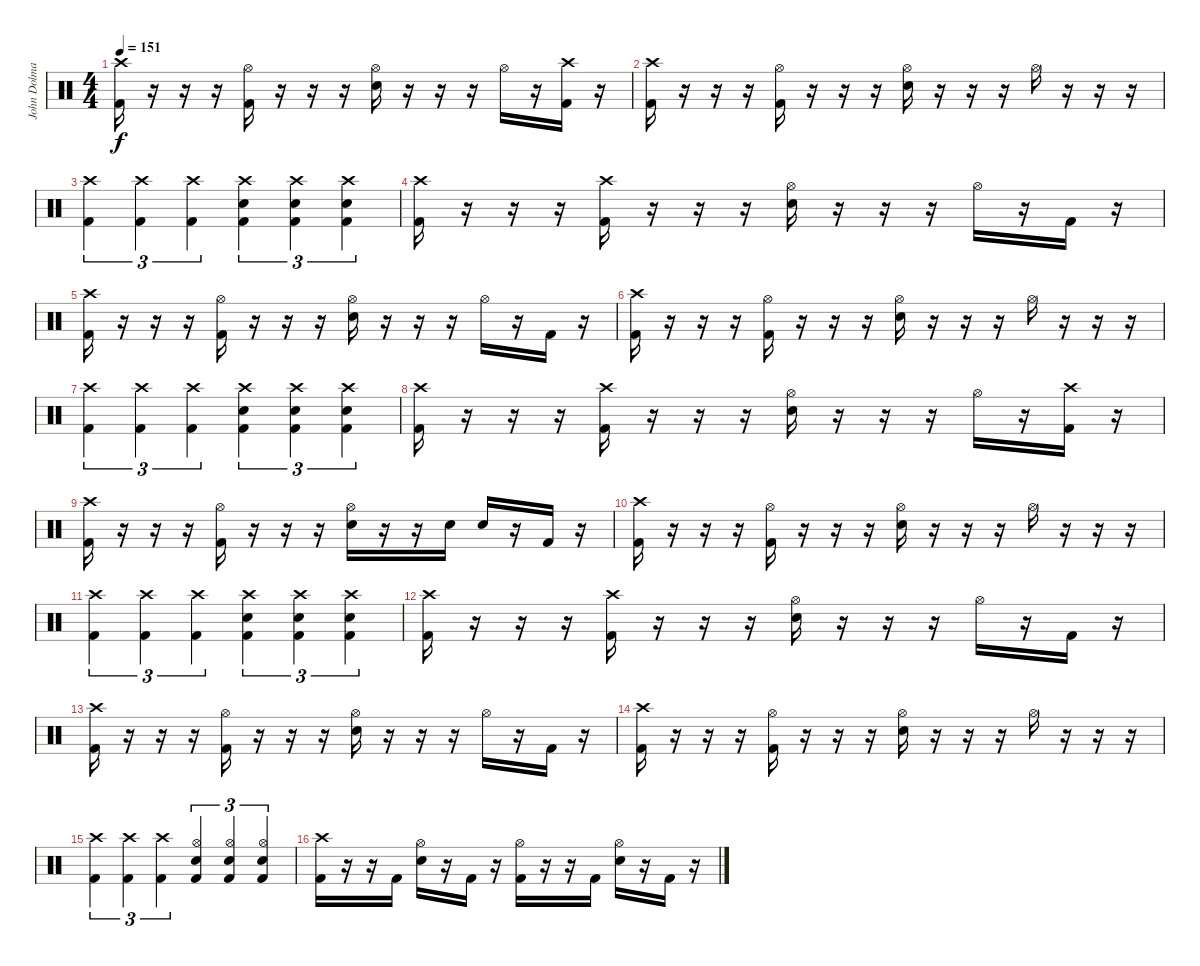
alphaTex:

\track ("John Dolmayan" "John Dolma") {instrument percussion}
\staff {score}
\articulation defaults
\ts (4 4)
\tempo 151
\clef neutral
\ks c
("Crash high (hit)" "Kick (hit) 2").16{dy f} r.16 r.16 r.16 ("Hi-Hat (open)" "Kick (hit) 2").16 r.16 r.16 r.16 ("Hi-Hat (open)" "Snare (hit) 2").16 r.16 r.16 r.16 "Hi-Hat (open)".16 r.16 ("Crash high (hit)" "Kick (hit) 2").16 r.16 |
("Crash high (hit)" "Kick (hit) 2").16 r.16 r.16 r.16 ("Hi-Hat (open)" "Kick (hit) 2").16 r.16 r.16 r.16 ("Hi-Hat (open)" "Snare (hit) 2").16 r.16 r.16 r.16 "Hi-Hat (open)".16 r.16 r.16 r.16 |
("Crash high (hit)" "Kick (hit) 2").4{tu (3 2)} ("Crash high (hit)" "Kick (hit) 2").4{tu (3 2)} ("Crash high (hit)" "Kick (hit) 2").4{tu (3 2)} ("Crash high (hit)" "Snare (hit) 2" "Kick (hit) 2").4{tu (3 2)} ("Crash high (hit)" "Snare (hit) 2" "Kick (hit) 2").4{tu (3 2)} ("Crash high (hit)" "Snare (hit) 2" "Kick (hit) 2").4{tu (3 2)} |
("Crash high (hit)" "Kick (hit) 2").16 r.16 r.16 r.16 ("Crash high (hit)" "Kick (hit) 2").16 r.16 r.16 r.16 ("Hi-Hat (open)" "Snare (hit) 2").16 r.16 r.16 r.16 "Hi-Hat (open)".16 r.16 "Kick (hit) 2".16 r.16 |
("Crash high (hit)" "Kick (hit) 2").16 r.16 r.16 r.16 ("Hi-Hat (open)" "Kick (hit) 2").16 r.16 r.16 r.16 ("Hi-Hat (open)" "Snare (hit) 2").16 r.16 r.16 r.16 "Hi-Hat (open)".16 r.16 "Kick (hit) 2".16 r.16 |
("Crash high (hit)" "Kick (hit) 2").16 r.16 r.16 r.16 ("Hi-Hat (open)" "Kick (hit) 2").16 r.16 r.16 r.16 ("Hi-Hat (open)" "Snare (hit) 2").16 r.16 r.16 r.16 "Hi-Hat (open)".16 r.16 r.16 r.16 |
("Crash high (hit)" "Kick (hit) 2").4{tu (3 2)} ("Crash high (hit)" "Kick (hit) 2").4{tu (3 2)} ("Crash high (hit)" "Kick (hit) 2").4{tu (3 2)} ("Crash high (hit)" "Snare (hit) 2" "Kick (hit) 2").4{tu (3 2)} ("Crash high (hit)" "Snare (hit) 2" "Kick (hit) 2").4{tu (3 2)} ("Crash high (hit)" "Snare (hit) 2" "Kick (hit) 2").4{tu (3 2)} |
("Crash high (hit)" "Kick (hit) 2").16 r.16 r.16 r.16 ("Crash high (hit)" "Kick (hit) 2").16 r.16 r.16 r.16 ("Hi-Hat (open)" "Snare (hit) 2").16 r.16 r.16 r.16 "Hi-Hat (open)".16 r.16 ("Crash high (hit)" "Kick (hit) 2").16 r.16 |
("Crash high (hit)" "Kick (hit) 2").16 r.16 r.16 r.16 ("Hi-Hat (open)" "Kick (hit) 2").16 r.16 r.16 r.16 ("Hi-Hat (open)" "Snare (hit) 2").16 r.16 r.16 "Snare (hit) 2".16 "Snare (hit) 2".16 r.16 "Kick (hit) 2".16 r.16 |
("Crash high (hit)" "Kick (hit) 2").16 r.16 r.16 r.16 ("Hi-Hat (open)" "Kick (hit) 2").16 r.16 r.16 r.16 ("Hi-Hat (open)" "Snare (hit) 2").16 r.16 r.16 r.16 "Hi-Hat (open)".16 r.16 r.16 r.16 |
("Crash high (hit)" "Kick (hit) 2").4{tu (3 2)} ("Crash high (hit)" "Kick (hit) 2").4{tu (3 2)} ("Crash high (hit)" "Kick (hit) 2").4{tu (3 2)} ("Crash high (hit)" "Snare (hit) 2" "Kick (hit) 2").4{tu (3 2)} ("Crash high (hit)" "Snare (hit) 2" "Kick (hit) 2").4{tu (3 2)} ("Crash high (hit)" "Snare (hit) 2" "Kick (hit) 2").4{tu (3 2)} |
("Crash high (hit)" "Kick (hit) 2").16 r.16 r.16 r.16 ("Crash high (hit)" "Kick (hit) 2").16 r.16 r.16 r.16 ("Hi-Hat (open)" "Snare (hit) 2").16 r.16 r.16 r.16 "Hi-Hat (open)".16 r.16 "Kick (hit) 2".16 r.16 |
("Crash high (hit)" "Kick (hit) 2").16 r.16 r.16 r.16 ("Hi-Hat (open)" "Kick (hit) 2").16 r.16 r.16 r.16 ("Hi-Hat (open)" "Snare (hit) 2").16 r.16 r.16 r.16 "Hi-Hat (open)".16 r.16 "Kick (hit) 2".16 r.16 |
("Crash high (hit)" "Kick (hit) 2").16 r.16 r.16 r.16 ("Hi-Hat (open)" "Kick (hit) 2").16 r.16 r.16 r.16 ("Hi-Hat (open)" "Snare (hit) 2").16 r.16 r.16 r.16 "Hi-Hat (open)".16 r.16 r.16 r.16 |
("Crash high (hit)" "Kick (hit) 2").4{tu (3 2)} ("Crash high (hit)" "Kick (hit) 2").4{tu (3 2)} ("Crash high (hit)" "Kick (hit) 2").4{tu (3 2)} ("Snare (hit) 2" "Hi-Hat (open)" "Kick (hit) 2").4{tu (3 2)} ("Snare (hit) 2" "Hi-Hat (open)" "Kick (hit) 2").4{tu (3 2)} ("Snare (hit) 2" "Hi-Hat (open)" "Kick (hit) 2").4{tu (3 2)} |
("Crash high (hit)" "Kick (hit) 2").16 r.16 r.16 "Kick (hit) 2".16 ("Hi-Hat (open)" "Snare (hit) 2").16 r.16 "Kick (hit) 2".16 r.16 ("Hi-Hat (open)" "Kick (hit) 2").16 r.16 r.16 "Kick (hit) 2".16 ("Hi-Hat (open)" "Snare (hit) 2").16 r.16 "Kick (hit) 2".16 r.16
